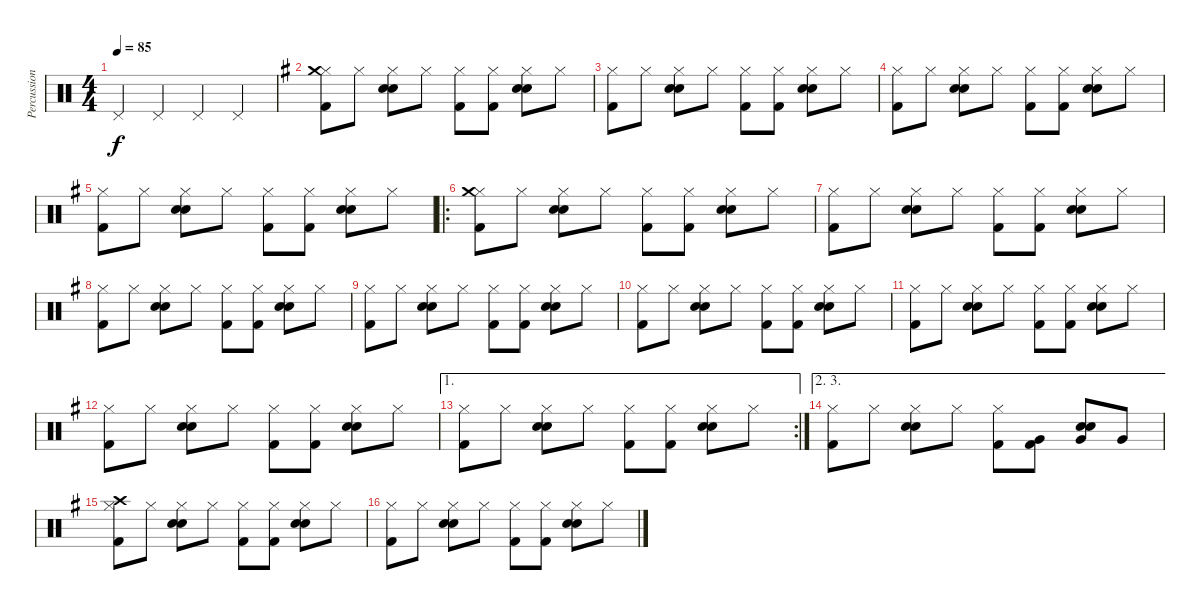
\track ("Percussions" "Percussion") {instrument percussion}
\staff {score}
\articulation defaults
\ts (4 4)
\tempo 85
\clef neutral
\ks c "Pedal Hi-Hat (hit)".4{dy f} "Pedal Hi-Hat (hit)".4 "Pedal Hi-Hat (hit)".4 "Pedal Hi-Hat (hit)".4
|
\ks g
("Hi-Hat (closed)" "Crash medium (hit)" "Kick (hit) 2").8 "Hi-Hat (closed)".8 ("Hi-Hat (closed)" "Hand Clap (hit)" "Snare (hit) 2").8 "Hi-Hat (closed)".8 ("Hi-Hat (closed)" "Kick (hit) 2").8 ("Hi-Hat (closed)" "Kick (hit) 2").8 ("Hi-Hat (closed)" "Hand Clap (hit)" "Snare (hit) 2").8 "Hi-Hat (closed)".8 |
("Hi-Hat (closed)" "Kick (hit) 2").8 "Hi-Hat (closed)".8 ("Hi-Hat (closed)" "Hand Clap (hit)" "Snare (hit) 2").8 "Hi-Hat (closed)".8 ("Hi-Hat (closed)" "Kick (hit) 2").8 ("Hi-Hat (closed)" "Kick (hit) 2").8 ("Hi-Hat (closed)" "Hand Clap (hit)" "Snare (hit) 2").8 "Hi-Hat (closed)".8 |
("Hi-Hat (closed)" "Kick (hit) 2").8 "Hi-Hat (closed)".8 ("Hi-Hat (closed)" "Hand Clap (hit)" "Snare (hit) 2").8 "Hi-Hat (closed)".8 ("Hi-Hat (closed)" "Kick (hit) 2").8 ("Hi-Hat (closed)" "Kick (hit) 2").8 ("Hi-Hat (closed)" "Hand Clap (hit)" "Snare (hit) 2").8 "Hi-Hat (closed)".8 |
("Hi-Hat (closed)" "Kick (hit) 2").8 "Hi-Hat (closed)".8 ("Hi-Hat (closed)" "Hand Clap (hit)" "Snare (hit) 2").8 "Hi-Hat (closed)".8 ("Hi-Hat (closed)" "Kick (hit) 2").8 ("Hi-Hat (closed)" "Kick (hit) 2").8 ("Hi-Hat (closed)" "Hand Clap (hit)" "Snare (hit) 2").8 "Hi-Hat (closed)".8 |
\ro
("Hi-Hat (closed)" "Crash medium (hit)" "Kick (hit) 2").8 "Hi-Hat (closed)".8 ("Hi-Hat (closed)" "Hand Clap (hit)" "Snare (hit) 2").8 "Hi-Hat (closed)".8 ("Hi-Hat (closed)" "Kick (hit) 2").8 ("Hi-Hat (closed)" "Kick (hit) 2").8 ("Hi-Hat (closed)" "Hand Clap (hit)" "Snare (hit) 2").8 "Hi-Hat (closed)".8 |
("Hi-Hat (closed)" "Kick (hit) 2").8 "Hi-Hat (closed)".8 ("Hi-Hat (closed)" "Hand Clap (hit)" "Snare (hit) 2").8 "Hi-Hat (closed)".8 ("Hi-Hat (closed)" "Kick (hit) 2").8 ("Hi-Hat (closed)" "Kick (hit) 2").8 ("Hi-Hat (closed)" "Hand Clap (hit)" "Snare (hit) 2").8 "Hi-Hat (closed)".8 |
("Hi-Hat (closed)" "Kick (hit) 2").8 "Hi-Hat (closed)".8 ("Hi-Hat (closed)" "Hand Clap (hit)" "Snare (hit) 2").8 "Hi-Hat (closed)".8 ("Hi-Hat (closed)" "Kick (hit) 2").8 ("Hi-Hat (closed)" "Kick (hit) 2").8 ("Hi-Hat (closed)" "Hand Clap (hit)" "Snare (hit) 2").8 "Hi-Hat (closed)".8 |
("Hi-Hat (closed)" "Kick (hit) 2").8 "Hi-Hat (closed)".8 ("Hi-Hat (closed)" "Hand Clap (hit)" "Snare (hit) 2").8 "Hi-Hat (closed)".8 ("Hi-Hat (closed)" "Kick (hit) 2").8 ("Hi-Hat (closed)" "Kick (hit) 2").8 ("Hi-Hat (closed)" "Hand Clap (hit)" "Snare (hit) 2").8 "Hi-Hat (closed)".8 |
("Hi-Hat (closed)" "Kick (hit) 2").8 "Hi-Hat (closed)".8 ("Hi-Hat (closed)" "Hand Clap (hit)" "Snare (hit) 2").8 "Hi-Hat (closed)".8 ("Hi-Hat (closed)" "Kick (hit) 2").8 ("Hi-Hat (closed)" "Kick (hit) 2").8 ("Hi-Hat (closed)" "Hand Clap (hit)" "Snare (hit) 2").8 "Hi-Hat (closed)".8 |
("Hi-Hat (closed)" "Kick (hit) 2").8 "Hi-Hat (closed)".8 ("Hi-Hat (closed)" "Hand Clap (hit)" "Snare (hit) 2").8 "Hi-Hat (closed)".8 ("Hi-Hat (closed)" "Kick (hit) 2").8 ("Hi-Hat (closed)" "Kick (hit) 2").8 ("Hi-Hat (closed)" "Hand Clap (hit)" "Snare (hit) 2").8 "Hi-Hat (closed)".8 |
("Hi-Hat (closed)" "Kick (hit) 2").8 "Hi-Hat (closed)".8 ("Hi-Hat (closed)" "Hand Clap (hit)" "Snare (hit) 2").8 "Hi-Hat (closed)".8 ("Hi-Hat (closed)" "Kick (hit) 2").8 ("Hi-Hat (closed)" "Kick (hit) 2").8 ("Hi-Hat (closed)" "Hand Clap (hit)" "Snare (hit) 2").8 "Hi-Hat (closed)".8 |
\ae 1
\rc 2
("Hi-Hat (closed)" "Kick (hit) 2").8 "Hi-Hat (closed)".8 ("Hi-Hat (closed)" "Hand Clap (hit)" "Snare (hit) 2").8 "Hi-Hat (closed)".8 ("Hi-Hat (closed)" "Kick (hit) 2").8 ("Hi-Hat (closed)" "Kick (hit) 2").8 ("Hi-Hat (closed)" "Hand Clap (hit)" "Snare (hit) 2").8 "Hi-Hat (closed)".8 |
\ae (2 3)
("Hi-Hat (closed)" "Kick (hit) 2").8 "Hi-Hat (closed)".8 ("Hi-Hat (closed)" "Hand Clap (hit)" "Snare (hit) 2").8 "Hi-Hat (closed)".8 ("Hi-Hat (closed)" "Kick (hit) 2").8 ("Very Low Tom (hit)" "Kick (hit) 2").8 ("Very Low Tom (hit)" "Hand Clap (hit)" "Snare (hit) 2").8 "Very Low Tom (hit)".8 |
("Hi-Hat (closed)" "Crash high (hit)" "Kick (hit) 2").8 "Hi-Hat (closed)".8 ("Hi-Hat (closed)" "Hand Clap (hit)" "Snare (hit) 2").8 "Hi-Hat (closed)".8 ("Hi-Hat (closed)" "Kick (hit) 2").8 ("Hi-Hat (closed)" "Kick (hit) 2").8 ("Hi-Hat (closed)" "Hand Clap (hit)" "Snare (hit) 2").8 "Hi-Hat (closed)".8 |
("Hi-Hat (closed)" "Kick (hit) 2").8 "Hi-Hat (closed)".8 ("Hi-Hat (closed)" "Hand Clap (hit)" "Snare (hit) 2").8 "Hi-Hat (closed)".8 ("Hi-Hat (closed)" "Kick (hit) 2").8 ("Hi-Hat (closed)" "Kick (hit) 2").8 ("Hi-Hat (closed)" "Hand Clap (hit)" "Snare (hit) 2").8 "Hi-Hat (closed)".8
